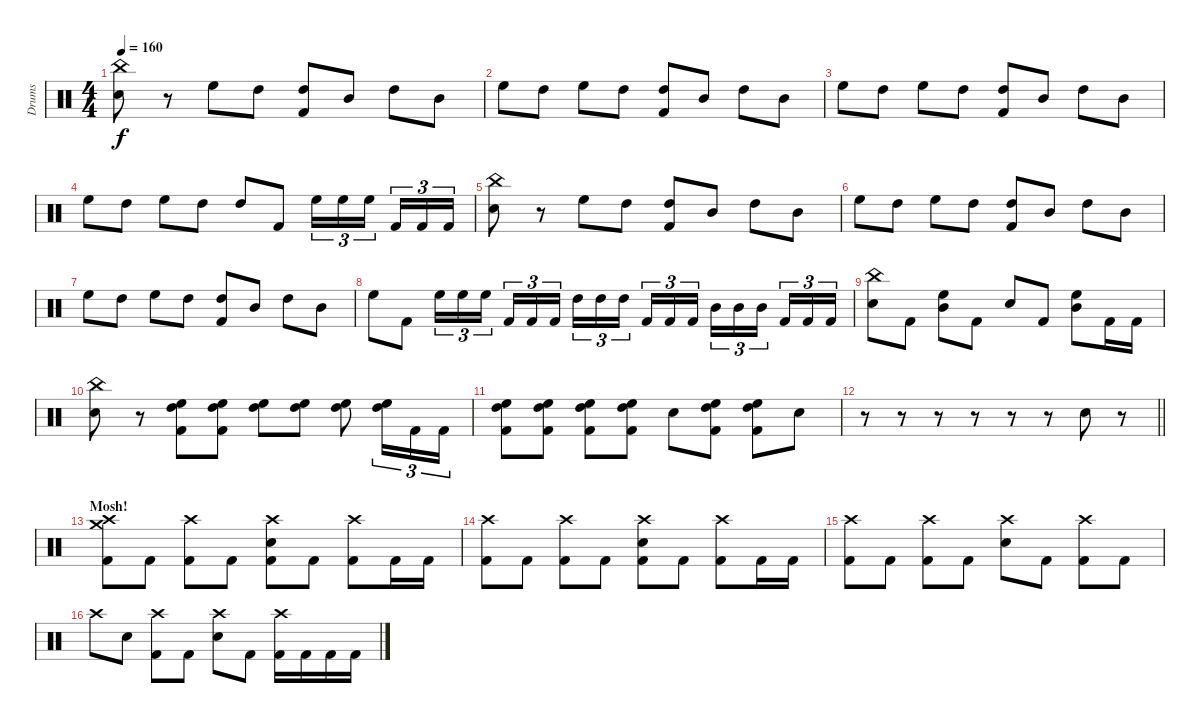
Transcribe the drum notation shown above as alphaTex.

\track ("Drums" "Drums") {instrument percussion}
\staff
\articulation defaults
\ts (4 4)
\tempo 160
\clef neutral
\ks c
("China (hit)" "Electric Snare (hit)").8{dy f} r.8 "High Floor Tom (hit)".8 "High Tom (hit)".8 ("High Tom (hit)" "Kick (hit) 2").8 "Mid Tom (hit)".8 "High Tom (hit)".8 "Mid Tom (hit)".8 |
"High Floor Tom (hit)".8 "High Tom (hit)".8 "High Floor Tom (hit)".8 "High Tom (hit)".8 ("High Tom (hit)" "Kick (hit) 2").8 "Mid Tom (hit)".8 "High Tom (hit)".8 "Mid Tom (hit)".8 |
"High Floor Tom (hit)".8 "High Tom (hit)".8 "High Floor Tom (hit)".8 "High Tom (hit)".8 ("High Tom (hit)" "Kick (hit) 2").8 "Mid Tom (hit)".8 "High Tom (hit)".8 "Mid Tom (hit)".8 |
"High Floor Tom (hit)".8 "High Tom (hit)".8 "High Floor Tom (hit)".8 "High Tom (hit)".8 "High Tom (hit)".8 "Kick (hit) 2".8 "High Floor Tom (hit)".16{tu (3 2)} "High Floor Tom (hit)".16{tu (3 2)} "High Floor Tom (hit)".16{tu (3 2) beam splitsecondary} "Kick (hit) 2".16{tu (3 2)} "Kick (hit) 2".16{tu (3 2)} "Kick (hit) 2".16{tu (3 2)} |
("China (hit)" "Electric Snare (hit)").8 r.8 "High Floor Tom (hit)".8 "High Tom (hit)".8 ("High Tom (hit)" "Kick (hit) 2").8 "Mid Tom (hit)".8 "High Tom (hit)".8 "Mid Tom (hit)".8 |
"High Floor Tom (hit)".8 "High Tom (hit)".8 "High Floor Tom (hit)".8 "High Tom (hit)".8 ("High Tom (hit)" "Kick (hit) 2").8 "Mid Tom (hit)".8 "High Tom (hit)".8 "Mid Tom (hit)".8 |
"High Floor Tom (hit)".8 "High Tom (hit)".8 "High Floor Tom (hit)".8 "High Tom (hit)".8 ("High Tom (hit)" "Kick (hit) 2").8 "Mid Tom (hit)".8 "High Tom (hit)".8 "Mid Tom (hit)".8 |
"High Floor Tom (hit)".8 "Kick (hit) 2".8 "High Floor Tom (hit)".16{tu (3 2)} "High Floor Tom (hit)".16{tu (3 2)} "High Floor Tom (hit)".16{tu (3 2) beam splitsecondary} "Kick (hit) 2".16{tu (3 2)} "Kick (hit) 2".16{tu (3 2)} "Kick (hit) 2".16{tu (3 2)} "High Tom (hit)".16{tu (3 2)} "High Tom (hit)".16{tu (3 2)} "High Tom (hit)".16{tu (3 2) beam splitsecondary} "Kick (hit) 2".16{tu (3 2)} "Kick (hit) 2".16{tu (3 2)} "Kick (hit) 2".16{tu (3 2)} "Mid Tom (hit)".16{tu (3 2)} "Mid Tom (hit)".16{tu (3 2)} "Mid Tom (hit)".16{tu (3 2) beam splitsecondary} "Kick (hit) 2".16{tu (3 2)} "Kick (hit) 2".16{tu (3 2)} "Kick (hit) 2".16{tu (3 2)} |
("China (hit)" "Electric Snare (hit)").8 "Kick (hit) 2".8 ("High Floor Tom (hit)" "Mid Tom (hit)").8 "Kick (hit) 2".8 "Electric Snare (hit)".8 "Kick (hit) 2".8 ("High Floor Tom (hit)" "Mid Tom (hit)").8 "Kick (hit) 2".16 "Kick (hit) 2".16 |
("China (hit)" "Electric Snare (hit)").8 r.8 ("High Floor Tom (hit)" "High Tom (hit)" "Kick (hit) 2").8 ("High Floor Tom (hit)" "High Tom (hit)" "Kick (hit) 2").8 ("High Floor Tom (hit)" "High Tom (hit)").8 ("High Floor Tom (hit)" "High Tom (hit)").8 ("High Floor Tom (hit)" "High Tom (hit)").8 ("High Floor Tom (hit)" "High Tom (hit)").16{tu (3 2)} "Kick (hit) 2".16{tu (3 2)} "Kick (hit) 2".16{tu (3 2)} |
("High Floor Tom (hit)" "High Tom (hit)" "Kick (hit) 2").8 ("High Floor Tom (hit)" "High Tom (hit)" "Kick (hit) 2").8 ("High Floor Tom (hit)" "High Tom (hit)" "Kick (hit) 2").8 ("High Floor Tom (hit)" "High Tom (hit)" "Kick (hit) 2").8 "Electric Snare (hit)".8 ("High Floor Tom (hit)" "High Tom (hit)" "Kick (hit) 2").8 ("High Floor Tom (hit)" "High Tom (hit)" "Kick (hit) 2").8 "Electric Snare (hit)".8 |
\barLineRight lightlight
r.8 r.8 r.8 r.8 r.8 r.8 "Electric Snare (hit)".8 r.8 |
\section ("" "Mosh!")
("Crash medium (hit)" "Crash high (hit)" "Kick (hit) 2").8 "Kick (hit) 2".8 ("Crash high (hit)" "Kick (hit) 2").8 "Kick (hit) 2".8 ("Crash high (hit)" "Electric Snare (hit)" "Kick (hit) 2").8 "Kick (hit) 2".8 ("Crash high (hit)" "Kick (hit) 2").8 "Kick (hit) 2".16 "Kick (hit) 2".16 |
("Crash high (hit)" "Kick (hit) 2").8 "Kick (hit) 2".8 ("Crash high (hit)" "Kick (hit) 2").8 "Kick (hit) 2".8 ("Crash high (hit)" "Electric Snare (hit)" "Kick (hit) 2").8 "Kick (hit) 2".8 ("Crash high (hit)" "Kick (hit) 2").8 "Kick (hit) 2".16 "Kick (hit) 2".16 |
("Crash high (hit)" "Kick (hit) 2").8 "Kick (hit) 2".8 ("Crash high (hit)" "Kick (hit) 2").8 "Kick (hit) 2".8 ("Crash high (hit)" "Electric Snare (hit)").8 "Kick (hit) 2".8 ("Crash high (hit)" "Kick (hit) 2").8 "Kick (hit) 2".8 |
"Crash high (hit)".8 "Electric Snare (hit)".8 ("Crash high (hit)" "Kick (hit) 2").8 "Kick (hit) 2".8 ("Crash high (hit)" "Electric Snare (hit)").8 "Kick (hit) 2".8 ("Crash high (hit)" "Kick (hit) 2").16 "Kick (hit) 2".16 "Kick (hit) 2".16 "Kick (hit) 2".16
